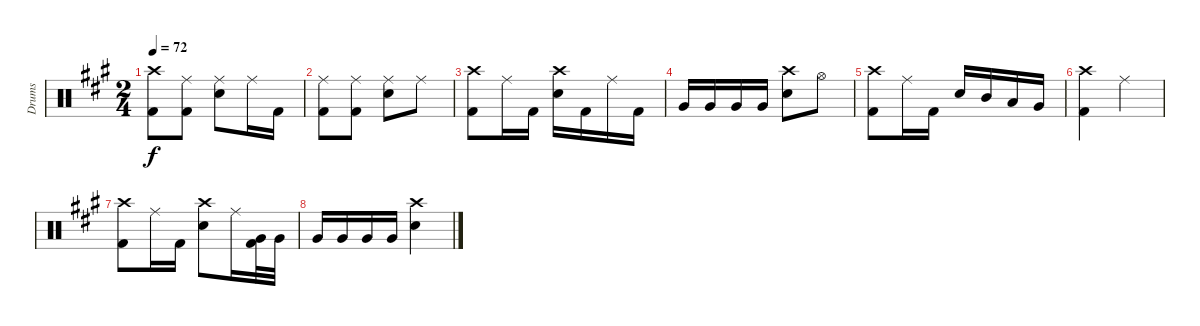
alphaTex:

\track ("Drums" "Drums") {instrument percussion}
\staff {score}
\articulation defaults
\ts (2 4)
\tempo 72
\clef neutral
\ks a
("Crash high (hit)" "Kick (hit) 2").8{dy f} ("Ride (middle)" "Kick (hit) 2").8 ("Ride (middle)" "Snare (hit) 2").8 "Ride (middle)".16 "Kick (hit) 2".16 |
("Ride (middle)" "Kick (hit) 2").8 ("Ride (middle)" "Kick (hit) 2").8 ("Ride (middle)" "Snare (hit) 2").8 "Ride (middle)".8 |
("Crash high (hit)" "Kick (hit) 2").8 "Ride (middle)".16 "Kick (hit) 2".16 ("Crash high (hit)" "Snare (hit) 2").16 "Kick (hit) 2".16 "Ride (middle)".16 "Kick (hit) 2".16 |
"Very Low Tom (hit)".16 "Very Low Tom (hit)".16 "Very Low Tom (hit)".16 "Very Low Tom (hit)".16 ("Crash high (hit)" "Snare (hit) 2").8 "Hi-Hat (open)".8 |
("Crash high (hit)" "Kick (hit) 2").8 "Ride (middle)".16 "Kick (hit) 2".16 "Snare (hit) 2".16 "Mid Tom (hit)".16 "Low Tom (hit)".16 "Very Low Tom (hit)".16 |
("Crash high (hit)" "Kick (hit) 2").4 "Ride (middle)".4 |
("Crash high (hit)" "Kick (hit) 2").8 "Ride (middle)".16 "Kick (hit) 2".16 ("Crash high (hit)" "Snare (hit) 2").8 "Ride (middle)".16 ("Very Low Tom (hit)" "Kick (hit) 2").32 "Very Low Tom (hit)".32 |
"Very Low Tom (hit)".16 "Very Low Tom (hit)".16 "Very Low Tom (hit)".16 "Very Low Tom (hit)".16 ("Crash high (hit)" "Snare (hit) 2").4
